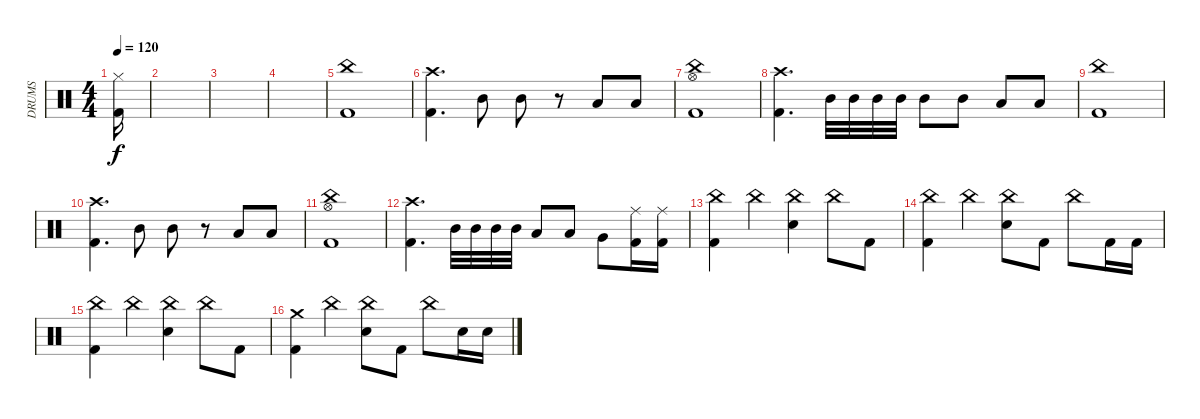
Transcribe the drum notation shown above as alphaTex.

\track ("DRUMS" "DRUMS") {instrument percussion}
\staff {score}
\articulation defaults
\ts (4 4)
\tempo 120
\clef neutral
\ks c
("Hi-Hat (closed)" "Kick (hit) 2").16{dy f} |
|
|
|
("China (hit)" "Kick (hit) 2").1 |
("Crash high (hit)" "Kick (hit) 2").4{d} "Mid Tom (hit)".8 "Mid Tom (hit)".8 r.8 "Low Tom (hit)".8 "Low Tom (hit)".8 |
("Hi-Hat (open)" "China (hit)" "Kick (hit) 2").1 |
("Crash high (hit)" "Kick (hit) 2").4{d} "Mid Tom (hit)".32 "Mid Tom (hit)".32 "Mid Tom (hit)".32 "Mid Tom (hit)".32 "Mid Tom (hit)".8 "Mid Tom (hit)".8 "Low Tom (hit)".8 "Low Tom (hit)".8 |
("China (hit)" "Kick (hit) 2").1 |
("Crash high (hit)" "Kick (hit) 2").4{d} "Mid Tom (hit)".8 "Mid Tom (hit)".8 r.8 "Low Tom (hit)".8 "Low Tom (hit)".8 |
("Hi-Hat (open)" "China (hit)" "Kick (hit) 2").1 |
("Crash high (hit)" "Kick (hit) 2").4{d} "Mid Tom (hit)".32 "Mid Tom (hit)".32 "Mid Tom (hit)".32 "Mid Tom (hit)".32 "Low Tom (hit)".8 "Low Tom (hit)".8 "Very Low Tom (hit)".8 ("Ride (middle)" "Kick (hit) 2").16 ("Ride (middle)" "Kick (hit) 2").16 |
("China (hit)" "Kick (hit) 2").4 "China (hit)".4 ("China (hit)" "Electric Snare (hit)").4 "China (hit)".8 "Kick (hit) 2".8 |
("China (hit)" "Kick (hit) 2").4 "China (hit)".4 ("China (hit)" "Electric Snare (hit)").8 "Kick (hit) 2".8 "China (hit)".8 "Kick (hit) 2".16 "Kick (hit) 2".16 |
("China (hit)" "Kick (hit) 2").4 "China (hit)".4 ("China (hit)" "Electric Snare (hit)").4 "China (hit)".8 "Kick (hit) 2".8 |
("Crash medium (hit)" "Kick (hit) 2").4 "China (hit)".4 ("China (hit)" "Electric Snare (hit)").8 "Kick (hit) 2".8 "China (hit)".8 "Electric Snare (hit)".16 "Electric Snare (hit)".16
